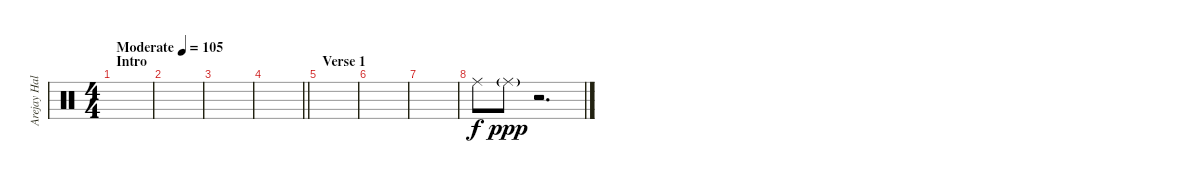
\track ("Arejay Hale" "Arejay Hal") {instrument percussion}
\staff {score}
\articulation defaults
\ts (4 4)
\section ("" "Intro")
\tempo (105 "Moderate")
\clef neutral
\ks c
|
|
|
\barLineRight lightlight
|
\section ("" "Verse 1")
|
|
|
"Ride (middle)".8 "Ride (middle)"{g}.8{dy ppp} r.2{d}
